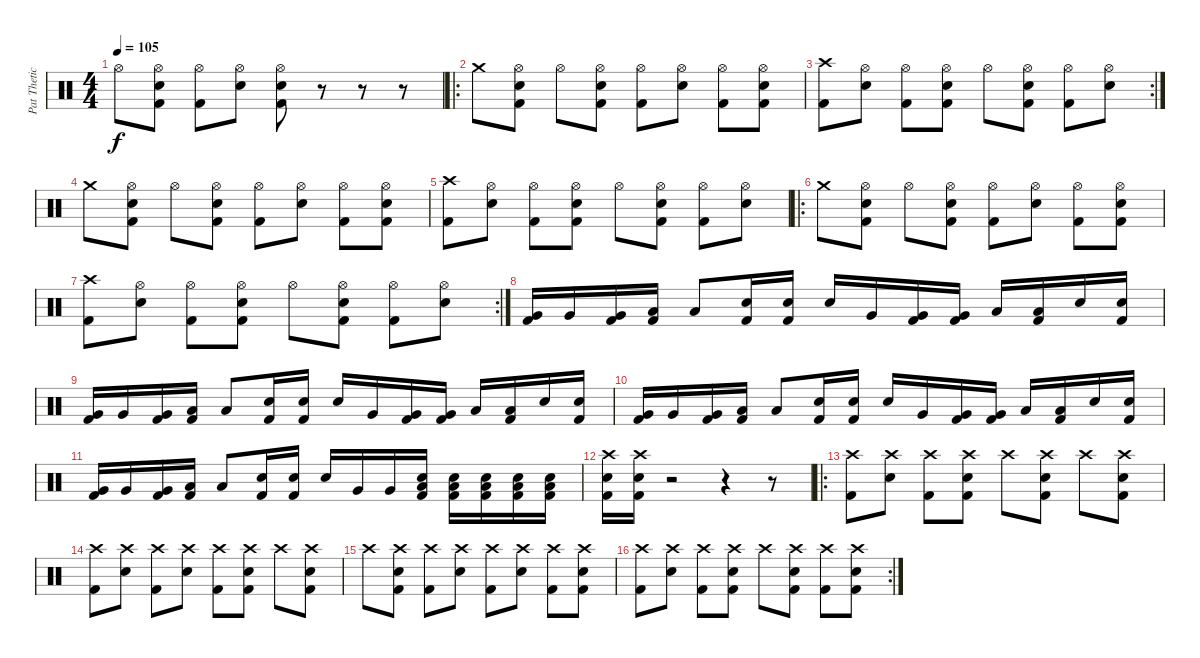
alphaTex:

\track ("Pat Thetic" "Pat Thetic") {instrument percussion}
\staff {score}
\articulation defaults
\ts (4 4)
\tempo 105
\clef neutral
\ks c "Hi-Hat (open)".8{dy f}
("Hi-Hat (open)" "Snare (hit) 2" "Kick (hit) 2").8 ("Hi-Hat (open)" "Kick (hit) 2").8 ("Hi-Hat (open)" "Snare (hit) 2").8 ("Hi-Hat (open)" "Snare (hit) 2" "Kick (hit) 2").8 r.8 r.8 r.8 |
\ro "Crash medium (hit)".8
("Hi-Hat (open)" "Snare (hit) 2" "Kick (hit) 2").8 "Hi-Hat (open)".8 ("Hi-Hat (open)" "Snare (hit) 2" "Kick (hit) 2").8 ("Hi-Hat (open)" "Kick (hit) 2").8 ("Hi-Hat (open)" "Snare (hit) 2").8 ("Hi-Hat (open)" "Kick (hit) 2").8 ("Hi-Hat (open)" "Snare (hit) 2" "Kick (hit) 2").8 |
\rc 2
("Crash high (hit)" "Kick (hit) 2").8 ("Hi-Hat (open)" "Snare (hit) 2").8 ("Hi-Hat (open)" "Kick (hit) 2").8 ("Hi-Hat (open)" "Snare (hit) 2" "Kick (hit) 2").8 "Hi-Hat (open)".8 ("Hi-Hat (open)" "Snare (hit) 2" "Kick (hit) 2").8 ("Hi-Hat (open)" "Kick (hit) 2").8 ("Hi-Hat (open)" "Snare (hit) 2").8 |
"Crash medium (hit)".8 ("Hi-Hat (open)" "Snare (hit) 2" "Kick (hit) 2").8 "Hi-Hat (open)".8 ("Hi-Hat (open)" "Snare (hit) 2" "Kick (hit) 2").8 ("Hi-Hat (open)" "Kick (hit) 2").8 ("Hi-Hat (open)" "Snare (hit) 2").8 ("Hi-Hat (open)" "Kick (hit) 2").8 ("Hi-Hat (open)" "Snare (hit) 2" "Kick (hit) 2").8 |
("Crash high (hit)" "Kick (hit) 2").8 ("Hi-Hat (open)" "Snare (hit) 2").8 ("Hi-Hat (open)" "Kick (hit) 2").8 ("Hi-Hat (open)" "Snare (hit) 2" "Kick (hit) 2").8 "Hi-Hat (open)".8 ("Hi-Hat (open)" "Snare (hit) 2" "Kick (hit) 2").8 ("Hi-Hat (open)" "Kick (hit) 2").8 ("Hi-Hat (open)" "Snare (hit) 2").8 |
\ro "Crash medium (hit)".8
("Hi-Hat (open)" "Snare (hit) 2" "Kick (hit) 2").8 "Hi-Hat (open)".8 ("Hi-Hat (open)" "Snare (hit) 2" "Kick (hit) 2").8 ("Hi-Hat (open)" "Kick (hit) 2").8 ("Hi-Hat (open)" "Snare (hit) 2").8 ("Hi-Hat (open)" "Kick (hit) 2").8 ("Hi-Hat (open)" "Snare (hit) 2" "Kick (hit) 2").8 |
\rc 2
("Crash high (hit)" "Kick (hit) 2").8 ("Hi-Hat (open)" "Snare (hit) 2").8 ("Hi-Hat (open)" "Kick (hit) 2").8 ("Hi-Hat (open)" "Snare (hit) 2" "Kick (hit) 2").8 "Hi-Hat (open)".8 ("Hi-Hat (open)" "Snare (hit) 2" "Kick (hit) 2").8 ("Hi-Hat (open)" "Kick (hit) 2").8 ("Hi-Hat (open)" "Snare (hit) 2").8 |
("Very Low Tom (hit)" "Kick (hit) 2").16 "Very Low Tom (hit)".16 ("Very Low Tom (hit)" "Kick (hit) 2").16 ("Low Floor Tom (hit)" "Kick (hit) 2").16 "Low Floor Tom (hit)".8 ("Snare (hit) 2" "Kick (hit) 2").16 ("Snare (hit) 2" "Kick (hit) 2").16 "Snare (hit) 2".16 "Very Low Tom (hit)".16 ("Very Low Tom (hit)" "Kick (hit) 2").16 ("Very Low Tom (hit)" "Kick (hit) 2").16 "Low Floor Tom (hit)".16 ("Low Floor Tom (hit)" "Kick (hit) 2").16 "Snare (hit) 2".16 ("Snare (hit) 2" "Kick (hit) 2").16 |
("Very Low Tom (hit)" "Kick (hit) 2").16 "Very Low Tom (hit)".16 ("Very Low Tom (hit)" "Kick (hit) 2").16 ("Low Floor Tom (hit)" "Kick (hit) 2").16 "Low Floor Tom (hit)".8 ("Snare (hit) 2" "Kick (hit) 2").16 ("Snare (hit) 2" "Kick (hit) 2").16 "Snare (hit) 2".16 "Very Low Tom (hit)".16 ("Very Low Tom (hit)" "Kick (hit) 2").16 ("Very Low Tom (hit)" "Kick (hit) 2").16 "Low Floor Tom (hit)".16 ("Low Floor Tom (hit)" "Kick (hit) 2").16 "Snare (hit) 2".16 ("Snare (hit) 2" "Kick (hit) 2").16 |
("Very Low Tom (hit)" "Kick (hit) 2").16 "Very Low Tom (hit)".16 ("Very Low Tom (hit)" "Kick (hit) 2").16 ("Low Floor Tom (hit)" "Kick (hit) 2").16 "Low Floor Tom (hit)".8 ("Snare (hit) 2" "Kick (hit) 2").16 ("Snare (hit) 2" "Kick (hit) 2").16 "Snare (hit) 2".16 "Very Low Tom (hit)".16 ("Very Low Tom (hit)" "Kick (hit) 2").16 ("Very Low Tom (hit)" "Kick (hit) 2").16 "Low Floor Tom (hit)".16 ("Low Floor Tom (hit)" "Kick (hit) 2").16 "Snare (hit) 2".16 ("Snare (hit) 2" "Kick (hit) 2").16 |
("Very Low Tom (hit)" "Kick (hit) 2").16 "Very Low Tom (hit)".16 ("Very Low Tom (hit)" "Kick (hit) 2").16 ("Low Floor Tom (hit)" "Kick (hit) 2").16 "Low Floor Tom (hit)".8 ("Snare (hit) 2" "Kick (hit) 2").16 ("Snare (hit) 2" "Kick (hit) 2").16 "Snare (hit) 2".16 "Very Low Tom (hit)".16 "Very Low Tom (hit)".16 ("Low Floor Tom (hit)" "Snare (hit) 2" "Kick (hit) 2").16 ("Low Floor Tom (hit)" "Snare (hit) 2" "Kick (hit) 2").16 ("Low Floor Tom (hit)" "Snare (hit) 2" "Kick (hit) 2").16 ("Low Floor Tom (hit)" "Snare (hit) 2" "Kick (hit) 2").16 ("Low Floor Tom (hit)" "Snare (hit) 2" "Kick (hit) 2").16 |
("Crash high (hit)" "Snare (hit) 2" "Kick (hit) 2").16 ("Crash high (hit)" "Snare (hit) 2" "Kick (hit) 2").16 r.2 r.4 r.8 |
\ro
("Crash high (hit)" "Kick (hit) 2").8 ("Crash high (hit)" "Snare (hit) 2").8 ("Crash high (hit)" "Kick (hit) 2").8 ("Crash high (hit)" "Snare (hit) 2" "Kick (hit) 2").8 "Crash high (hit)".8 ("Crash high (hit)" "Snare (hit) 2" "Kick (hit) 2").8 "Crash high (hit)".8 ("Crash high (hit)" "Snare (hit) 2" "Kick (hit) 2").8 |
("Crash high (hit)" "Kick (hit) 2").8 ("Crash high (hit)" "Snare (hit) 2").8 ("Crash high (hit)" "Kick (hit) 2").8 ("Crash high (hit)" "Snare (hit) 2").8 ("Crash high (hit)" "Kick (hit) 2").8 ("Crash high (hit)" "Snare (hit) 2" "Kick (hit) 2").8 "Crash high (hit)".8 ("Crash high (hit)" "Snare (hit) 2" "Kick (hit) 2").8 |
"Crash high (hit)".8 ("Crash high (hit)" "Snare (hit) 2" "Kick (hit) 2").8 ("Crash high (hit)" "Kick (hit) 2").8 ("Crash high (hit)" "Snare (hit) 2").8 ("Crash high (hit)" "Kick (hit) 2").8 ("Crash high (hit)" "Snare (hit) 2").8 ("Crash high (hit)" "Kick (hit) 2").8 ("Crash high (hit)" "Snare (hit) 2" "Kick (hit) 2").8 |
\rc 2
("Crash high (hit)" "Kick (hit) 2").8 ("Crash high (hit)" "Snare (hit) 2").8 ("Crash high (hit)" "Kick (hit) 2").8 ("Crash high (hit)" "Snare (hit) 2" "Kick (hit) 2").8 "Crash high (hit)".8 ("Crash high (hit)" "Snare (hit) 2" "Kick (hit) 2").8 ("Crash high (hit)" "Kick (hit) 2").8 ("Crash high (hit)" "Snare (hit) 2" "Kick (hit) 2").8
